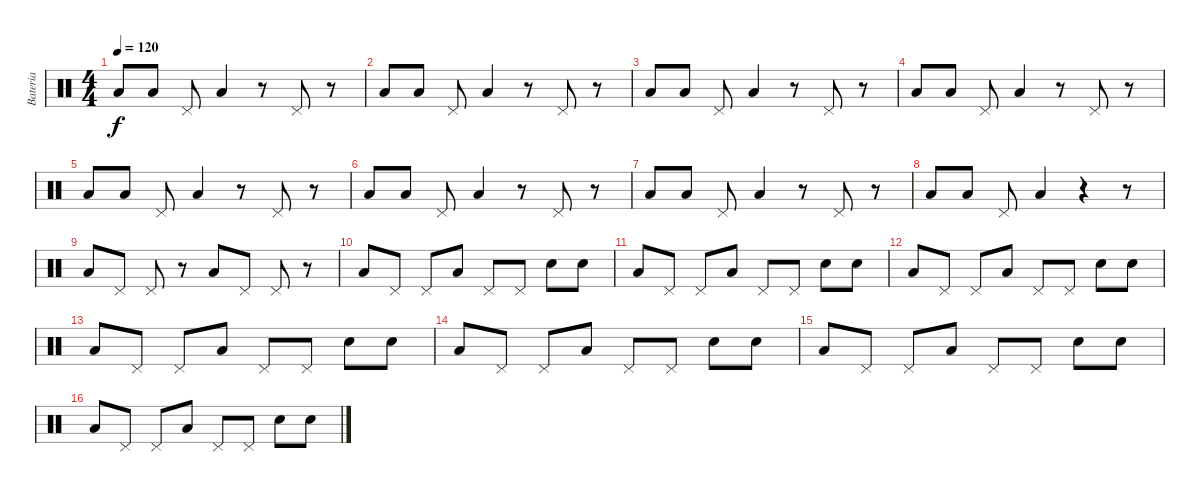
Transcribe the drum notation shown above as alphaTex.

\track ("Bateria" "Bateria") {instrument percussion}
\staff {score}
\articulation defaults
\ts (4 4)
\tempo 120
\clef neutral
\ks c "Low Tom (hit)".8{dy f} "Low Tom (hit)".8 "Pedal Hi-Hat (hit)".8 "Low Tom (hit)".4
r.8 "Pedal Hi-Hat (hit)".8 r.8 |
"Low Tom (hit)".8 "Low Tom (hit)".8 "Pedal Hi-Hat (hit)".8 "Low Tom (hit)".4 r.8 "Pedal Hi-Hat (hit)".8 r.8 |
"Low Tom (hit)".8 "Low Tom (hit)".8 "Pedal Hi-Hat (hit)".8 "Low Tom (hit)".4 r.8 "Pedal Hi-Hat (hit)".8 r.8 |
"Low Tom (hit)".8 "Low Tom (hit)".8 "Pedal Hi-Hat (hit)".8 "Low Tom (hit)".4 r.8 "Pedal Hi-Hat (hit)".8 r.8 |
"Low Tom (hit)".8 "Low Tom (hit)".8 "Pedal Hi-Hat (hit)".8 "Low Tom (hit)".4 r.8 "Pedal Hi-Hat (hit)".8 r.8 |
"Low Tom (hit)".8 "Low Tom (hit)".8 "Pedal Hi-Hat (hit)".8 "Low Tom (hit)".4 r.8 "Pedal Hi-Hat (hit)".8 r.8 |
"Low Tom (hit)".8 "Low Tom (hit)".8 "Pedal Hi-Hat (hit)".8 "Low Tom (hit)".4 r.8 "Pedal Hi-Hat (hit)".8 r.8 |
"Low Tom (hit)".8 "Low Tom (hit)".8 "Pedal Hi-Hat (hit)".8 "Low Tom (hit)".4 r.4 r.8 |
"Low Tom (hit)".8 "Pedal Hi-Hat (hit)".8 "Pedal Hi-Hat (hit)".8 r.8 "Low Tom (hit)".8 "Pedal Hi-Hat (hit)".8 "Pedal Hi-Hat (hit)".8 r.8 |
"Low Tom (hit)".8 "Pedal Hi-Hat (hit)".8 "Pedal Hi-Hat (hit)".8 "Low Tom (hit)".8 "Pedal Hi-Hat (hit)".8 "Pedal Hi-Hat (hit)".8 "Snare (hit) 2".8 "Snare (hit) 2".8 |
"Low Tom (hit)".8 "Pedal Hi-Hat (hit)".8 "Pedal Hi-Hat (hit)".8 "Low Tom (hit)".8 "Pedal Hi-Hat (hit)".8 "Pedal Hi-Hat (hit)".8 "Snare (hit) 2".8 "Snare (hit) 2".8 |
"Low Tom (hit)".8 "Pedal Hi-Hat (hit)".8 "Pedal Hi-Hat (hit)".8 "Low Tom (hit)".8 "Pedal Hi-Hat (hit)".8 "Pedal Hi-Hat (hit)".8 "Snare (hit) 2".8 "Snare (hit) 2".8 |
"Low Tom (hit)".8 "Pedal Hi-Hat (hit)".8 "Pedal Hi-Hat (hit)".8 "Low Tom (hit)".8 "Pedal Hi-Hat (hit)".8 "Pedal Hi-Hat (hit)".8 "Snare (hit) 2".8 "Snare (hit) 2".8 |
"Low Tom (hit)".8 "Pedal Hi-Hat (hit)".8 "Pedal Hi-Hat (hit)".8 "Low Tom (hit)".8 "Pedal Hi-Hat (hit)".8 "Pedal Hi-Hat (hit)".8 "Snare (hit) 2".8 "Snare (hit) 2".8 |
"Low Tom (hit)".8 "Pedal Hi-Hat (hit)".8 "Pedal Hi-Hat (hit)".8 "Low Tom (hit)".8 "Pedal Hi-Hat (hit)".8 "Pedal Hi-Hat (hit)".8 "Snare (hit) 2".8 "Snare (hit) 2".8 |
"Low Tom (hit)".8 "Pedal Hi-Hat (hit)".8 "Pedal Hi-Hat (hit)".8 "Low Tom (hit)".8 "Pedal Hi-Hat (hit)".8 "Pedal Hi-Hat (hit)".8 "Snare (hit) 2".8 "Snare (hit) 2".8
